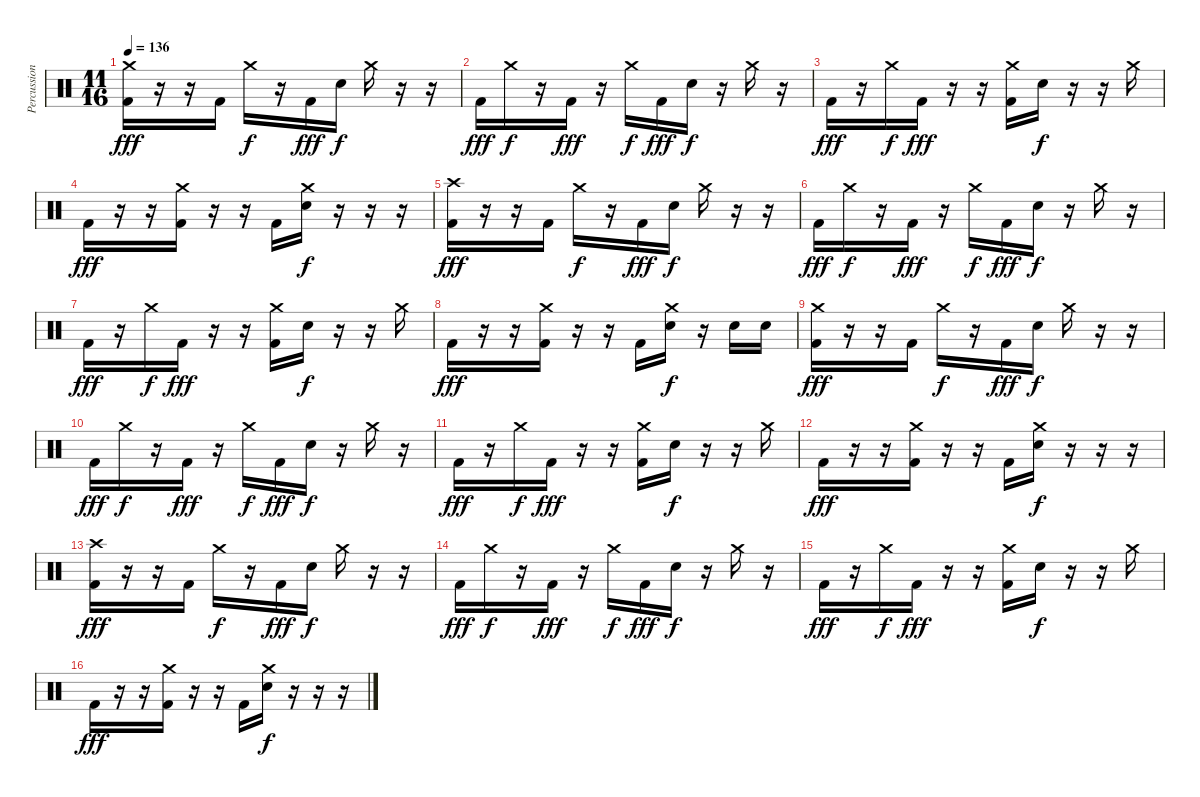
\track ("Percussion" "Percussion") {instrument percussion}
\staff {score}
\articulation defaults
\ts (11 16)
\tempo 136
\clef neutral
\ks c
("Crash medium (hit)" "Kick (hit) 2").16{dy fff} r.16 r.16 "Kick (hit) 2".16 "Crash medium (hit)".16{dy f} r.16 "Kick (hit) 2".16{dy fff} "Electric Snare (hit)".16{dy f} "Crash medium (hit)".16 r.16 r.16 |
"Kick (hit) 2".16{dy fff} "Crash medium (hit)".16{dy f} r.16 "Kick (hit) 2".16{dy fff} r.16 "Crash medium (hit)".16{dy f} "Kick (hit) 2".16{dy fff} "Electric Snare (hit)".16{dy f} r.16 "Crash medium (hit)".16 r.16 |
"Kick (hit) 2".16{dy fff} r.16 "Crash medium (hit)".16{dy f} "Kick (hit) 2".16{dy fff} r.16 r.16 ("Crash medium (hit)" "Kick (hit) 2").16 "Electric Snare (hit)".16{dy f} r.16 r.16 "Crash medium (hit)".16 |
"Kick (hit) 2".16{dy fff} r.16 r.16 ("Crash medium (hit)" "Kick (hit) 2").16 r.16 r.16 "Kick (hit) 2".16 ("Crash medium (hit)" "Electric Snare (hit)").16{dy f} r.16 r.16 r.16 |
("Crash high (hit)" "Kick (hit) 2").16{dy fff} r.16 r.16 "Kick (hit) 2".16 "Crash medium (hit)".16{dy f} r.16 "Kick (hit) 2".16{dy fff} "Electric Snare (hit)".16{dy f} "Crash medium (hit)".16 r.16 r.16 |
"Kick (hit) 2".16{dy fff} "Crash medium (hit)".16{dy f} r.16 "Kick (hit) 2".16{dy fff} r.16 "Crash medium (hit)".16{dy f} "Kick (hit) 2".16{dy fff} "Electric Snare (hit)".16{dy f} r.16 "Crash medium (hit)".16 r.16 |
"Kick (hit) 2".16{dy fff} r.16 "Crash medium (hit)".16{dy f} "Kick (hit) 2".16{dy fff} r.16 r.16 ("Crash medium (hit)" "Kick (hit) 2").16 "Electric Snare (hit)".16{dy f} r.16 r.16 "Crash medium (hit)".16 |
"Kick (hit) 2".16{dy fff} r.16 r.16 ("Crash medium (hit)" "Kick (hit) 2").16 r.16 r.16 "Kick (hit) 2".16 ("Crash medium (hit)" "Electric Snare (hit)").16{dy f} r.16 "Electric Snare (hit)".16 "Electric Snare (hit)".16 |
("Crash medium (hit)" "Kick (hit) 2").16{dy fff} r.16 r.16 "Kick (hit) 2".16 "Crash medium (hit)".16{dy f} r.16 "Kick (hit) 2".16{dy fff} "Electric Snare (hit)".16{dy f} "Crash medium (hit)".16 r.16 r.16 |
"Kick (hit) 2".16{dy fff} "Crash medium (hit)".16{dy f} r.16 "Kick (hit) 2".16{dy fff} r.16 "Crash medium (hit)".16{dy f} "Kick (hit) 2".16{dy fff} "Electric Snare (hit)".16{dy f} r.16 "Crash medium (hit)".16 r.16 |
"Kick (hit) 2".16{dy fff} r.16 "Crash medium (hit)".16{dy f} "Kick (hit) 2".16{dy fff} r.16 r.16 ("Crash medium (hit)" "Kick (hit) 2").16 "Electric Snare (hit)".16{dy f} r.16 r.16 "Crash medium (hit)".16 |
"Kick (hit) 2".16{dy fff} r.16 r.16 ("Crash medium (hit)" "Kick (hit) 2").16 r.16 r.16 "Kick (hit) 2".16 ("Crash medium (hit)" "Electric Snare (hit)").16{dy f} r.16 r.16 r.16 |
("Crash high (hit)" "Kick (hit) 2").16{dy fff} r.16 r.16 "Kick (hit) 2".16 "Crash medium (hit)".16{dy f} r.16 "Kick (hit) 2".16{dy fff} "Electric Snare (hit)".16{dy f} "Crash medium (hit)".16 r.16 r.16 |
"Kick (hit) 2".16{dy fff} "Crash medium (hit)".16{dy f} r.16 "Kick (hit) 2".16{dy fff} r.16 "Crash medium (hit)".16{dy f} "Kick (hit) 2".16{dy fff} "Electric Snare (hit)".16{dy f} r.16 "Crash medium (hit)".16 r.16 |
"Kick (hit) 2".16{dy fff} r.16 "Crash medium (hit)".16{dy f} "Kick (hit) 2".16{dy fff} r.16 r.16 ("Crash medium (hit)" "Kick (hit) 2").16 "Electric Snare (hit)".16{dy f} r.16 r.16 "Crash medium (hit)".16 |
"Kick (hit) 2".16{dy fff} r.16 r.16 ("Crash medium (hit)" "Kick (hit) 2").16 r.16 r.16 "Kick (hit) 2".16 ("Crash medium (hit)" "Electric Snare (hit)").16{dy f} r.16 r.16 r.16
